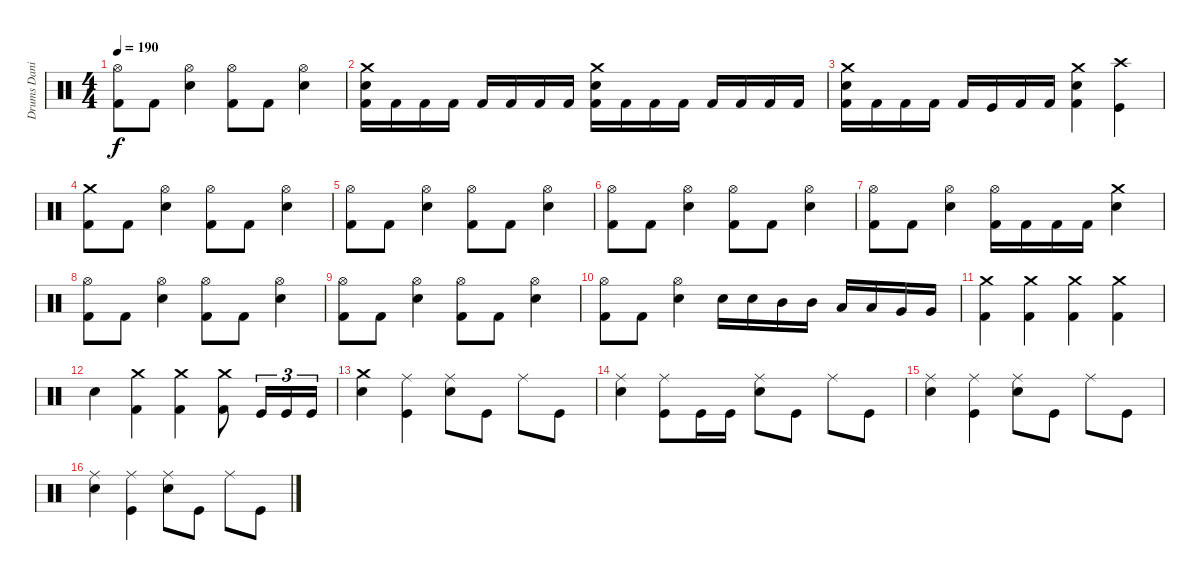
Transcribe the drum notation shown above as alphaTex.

\track ("Drums Daniel" "Drums Dani") {instrument percussion}
\staff {score}
\articulation defaults
\ts (4 4)
\tempo 190
\clef neutral
\ks c
("Hi-Hat (open)" "Kick (hit) 2").8{dy f} "Kick (hit) 2".8 ("Hi-Hat (open)" "Electric Snare (hit)").4 ("Hi-Hat (open)" "Kick (hit) 2").8 "Kick (hit) 2".8 ("Hi-Hat (open)" "Electric Snare (hit)").4 |
("Crash medium (hit)" "Electric Snare (hit)" "Kick (hit) 2").16 "Kick (hit) 2".16 "Kick (hit) 2".16 "Kick (hit) 2".16 "Kick (hit) 2".16 "Kick (hit) 2".16 "Kick (hit) 2".16 "Kick (hit) 2".16 ("Crash medium (hit)" "Electric Snare (hit)" "Kick (hit) 2").16 "Kick (hit) 2".16 "Kick (hit) 2".16 "Kick (hit) 2".16 "Kick (hit) 2".16 "Kick (hit) 2".16 "Kick (hit) 2".16 "Kick (hit) 2".16 |
("Crash medium (hit)" "Electric Snare (hit)" "Kick (hit) 2").16 "Kick (hit) 2".16 "Kick (hit) 2".16 "Kick (hit) 2".16 "Kick (hit) 2".16 "Kick (hit)".16 "Kick (hit) 2".16 "Kick (hit) 2".16 ("Crash medium (hit)" "Electric Snare (hit)" "Kick (hit) 2").4 ("Crash high (hit)" "Kick (hit)").4 |
("Crash medium (hit)" "Kick (hit) 2").8 "Kick (hit) 2".8 ("Hi-Hat (open)" "Electric Snare (hit)").4 ("Hi-Hat (open)" "Kick (hit) 2").8 "Kick (hit) 2".8 ("Hi-Hat (open)" "Electric Snare (hit)").4 |
("Hi-Hat (open)" "Kick (hit) 2").8 "Kick (hit) 2".8 ("Hi-Hat (open)" "Electric Snare (hit)").4 ("Hi-Hat (open)" "Kick (hit) 2").8 "Kick (hit) 2".8 ("Hi-Hat (open)" "Electric Snare (hit)").4 |
("Hi-Hat (open)" "Kick (hit) 2").8 "Kick (hit) 2".8 ("Hi-Hat (open)" "Electric Snare (hit)").4 ("Hi-Hat (open)" "Kick (hit) 2").8 "Kick (hit) 2".8 ("Hi-Hat (open)" "Electric Snare (hit)").4 |
("Hi-Hat (open)" "Kick (hit) 2").8 "Kick (hit) 2".8 ("Hi-Hat (open)" "Electric Snare (hit)").4 ("Hi-Hat (open)" "Kick (hit) 2").16 "Kick (hit) 2".16 "Kick (hit) 2".16 "Kick (hit) 2".16 ("Crash medium (hit)" "Electric Snare (hit)").4 |
("Hi-Hat (open)" "Kick (hit) 2").8 "Kick (hit) 2".8 ("Hi-Hat (open)" "Electric Snare (hit)").4 ("Hi-Hat (open)" "Kick (hit) 2").8 "Kick (hit) 2".8 ("Hi-Hat (open)" "Electric Snare (hit)").4 |
("Hi-Hat (open)" "Kick (hit) 2").8 "Kick (hit) 2".8 ("Hi-Hat (open)" "Electric Snare (hit)").4 ("Hi-Hat (open)" "Kick (hit) 2").8 "Kick (hit) 2".8 ("Hi-Hat (open)" "Electric Snare (hit)").4 |
("Hi-Hat (open)" "Kick (hit) 2").8 "Kick (hit) 2".8 ("Hi-Hat (open)" "Electric Snare (hit)").4 "Electric Snare (hit)".16 "Electric Snare (hit)".16 "Mid Tom (hit)".16 "Mid Tom (hit)".16 "Low Tom (hit)".16 "Low Tom (hit)".16 "Very Low Tom (hit)".16 "Very Low Tom (hit)".16 |
("Crash medium (hit)" "Kick (hit) 2").4 ("Crash medium (hit)" "Kick (hit) 2").4 ("Crash medium (hit)" "Kick (hit) 2").4 ("Crash medium (hit)" "Kick (hit) 2").4 |
"Electric Snare (hit)".4 ("Crash medium (hit)" "Kick (hit) 2").4 ("Crash medium (hit)" "Kick (hit) 2").4 ("Crash medium (hit)" "Kick (hit) 2").8 "Kick (hit)".16{tu (3 2)} "Kick (hit)".16{tu (3 2)} "Kick (hit)".16{tu (3 2)} |
("Electric Snare (hit)" "Crash medium (hit)").4 ("Kick (hit)" "Ride (middle)").4 ("Electric Snare (hit)" "Ride (middle)").8 "Kick (hit)".8 "Ride (middle)".8 "Kick (hit)".8 |
("Electric Snare (hit)" "Ride (middle)").4 ("Kick (hit)" "Ride (middle)").8 "Kick (hit)".16 "Kick (hit)".16 ("Electric Snare (hit)" "Ride (middle)").8 "Kick (hit)".8 "Ride (middle)".8 "Kick (hit)".8 |
("Electric Snare (hit)" "Ride (middle)").4 ("Kick (hit)" "Ride (middle)").4 ("Electric Snare (hit)" "Ride (middle)").8 "Kick (hit)".8 "Ride (middle)".8 "Kick (hit)".8 |
("Electric Snare (hit)" "Ride (middle)").4 ("Kick (hit)" "Ride (middle)").4 ("Electric Snare (hit)" "Ride (middle)").8 "Kick (hit)".8 "Ride (middle)".8 "Kick (hit)".8
